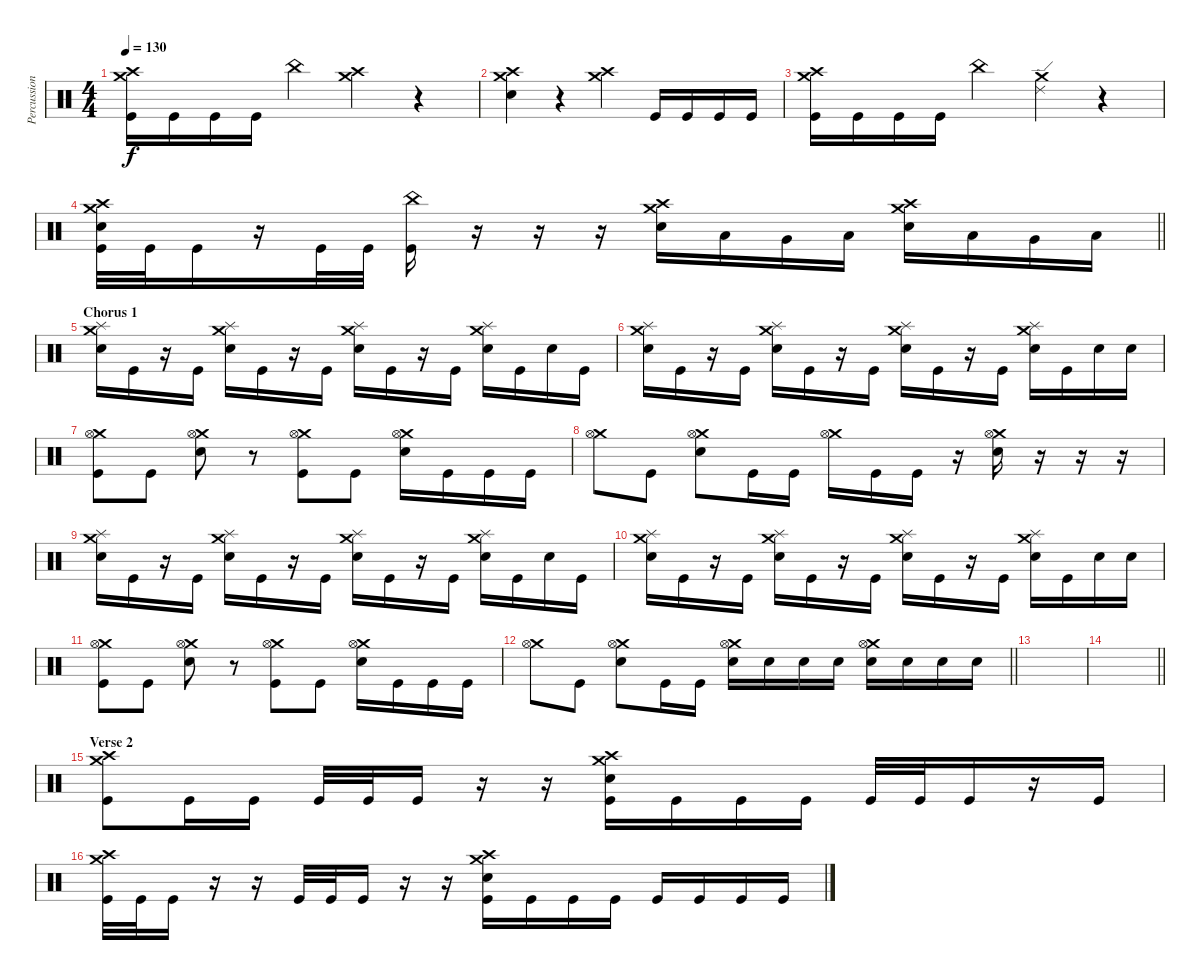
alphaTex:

\track ("Percussion (Approx.)" "Percussion") {instrument percussion}
\staff {score}
\articulation defaults
\ts (4 4)
\tempo 130
\clef neutral
\ks c
("Crash medium (hit)" "Crash high (hit)" "Kick (hit)").16{dy f} "Kick (hit)".16 "Kick (hit)".16 "Kick (hit)".16 "China (hit)".4 ("Crash medium (hit)" "Crash high (hit)").4 r.4 |
("Crash medium (hit)" "Crash high (hit)" "Electric Snare (hit)").4 r.4 ("Crash medium (hit)" "Crash high (hit)").4 "Kick (hit)".16 "Kick (hit)".16 "Kick (hit)".16 "Kick (hit)".16 |
("Crash medium (hit)" "Crash high (hit)" "Kick (hit)").16 "Kick (hit)".16 "Kick (hit)".16 "Kick (hit)".16 "China (hit)".4 ("Crash medium (hit)" "Ride (edge) 2").4 r.4 |
\barLineRight lightlight
("Crash medium (hit)" "Crash high (hit)" "Electric Snare (hit)" "Kick (hit)").32 "Kick (hit)".32 "Kick (hit)".16 r.16 "Kick (hit)".32 "Kick (hit)".32 ("China (hit)" "Kick (hit)").16 r.16 r.16 r.16 ("Crash medium (hit)" "Crash high (hit)" "Electric Snare (hit)").16 "Low Tom (hit)".16 "Very Low Tom (hit)".16 "Low Floor Tom (hit)".16 ("Crash medium (hit)" "Crash high (hit)" "Electric Snare (hit)").16 "Low Tom (hit)".16 "Very Low Tom (hit)".16 "Low Floor Tom (hit)".16 |
\section ("" "Chorus 1")
("Crash medium (hit)" "Splash (hit)" "Electric Snare (hit)").16 "Kick (hit)".16 r.16 "Kick (hit)".16 ("Crash medium (hit)" "Splash (hit)" "Electric Snare (hit)").16 "Kick (hit)".16 r.16 "Kick (hit)".16 ("Crash medium (hit)" "Splash (hit)" "Electric Snare (hit)").16 "Kick (hit)".16 r.16 "Kick (hit)".16 ("Crash medium (hit)" "Splash (hit)" "Electric Snare (hit)").16 "Kick (hit)".16 "Electric Snare (hit)".16 "Kick (hit)".16 |
("Crash medium (hit)" "Splash (hit)" "Electric Snare (hit)").16 "Kick (hit)".16 r.16 "Kick (hit)".16 ("Crash medium (hit)" "Splash (hit)" "Electric Snare (hit)").16 "Kick (hit)".16 r.16 "Kick (hit)".16 ("Crash medium (hit)" "Splash (hit)" "Electric Snare (hit)").16 "Kick (hit)".16 r.16 "Kick (hit)".16 ("Crash medium (hit)" "Splash (hit)" "Electric Snare (hit)").16 "Kick (hit)".16 "Electric Snare (hit)".16 "Electric Snare (hit)".16 |
("Crash medium (hit)" "Hi-Hat (open)" "Kick (hit)").8 "Kick (hit)".8 ("Crash medium (hit)" "Hi-Hat (open)" "Electric Snare (hit)").8 r.8 ("Crash medium (hit)" "Hi-Hat (open)" "Kick (hit)").8 "Kick (hit)".8 ("Crash medium (hit)" "Hi-Hat (open)" "Electric Snare (hit)").16 "Kick (hit)".16 "Kick (hit)".16 "Kick (hit)".16 |
("Crash medium (hit)" "Hi-Hat (open)").8 "Kick (hit)".8 ("Crash medium (hit)" "Hi-Hat (open)" "Electric Snare (hit)").8 "Kick (hit)".16 "Kick (hit)".16 ("Crash medium (hit)" "Hi-Hat (open)").16 "Kick (hit)".16 "Kick (hit)".16 r.16 ("Crash medium (hit)" "Hi-Hat (open)" "Electric Snare (hit)").16 r.16 r.16 r.16 |
("Crash medium (hit)" "Splash (hit)" "Electric Snare (hit)").16 "Kick (hit)".16 r.16 "Kick (hit)".16 ("Crash medium (hit)" "Splash (hit)" "Electric Snare (hit)").16 "Kick (hit)".16 r.16 "Kick (hit)".16 ("Crash medium (hit)" "Splash (hit)" "Electric Snare (hit)").16 "Kick (hit)".16 r.16 "Kick (hit)".16 ("Crash medium (hit)" "Splash (hit)" "Electric Snare (hit)").16 "Kick (hit)".16 "Electric Snare (hit)".16 "Kick (hit)".16 |
("Crash medium (hit)" "Splash (hit)" "Electric Snare (hit)").16 "Kick (hit)".16 r.16 "Kick (hit)".16 ("Crash medium (hit)" "Splash (hit)" "Electric Snare (hit)").16 "Kick (hit)".16 r.16 "Kick (hit)".16 ("Crash medium (hit)" "Splash (hit)" "Electric Snare (hit)").16 "Kick (hit)".16 r.16 "Kick (hit)".16 ("Crash medium (hit)" "Splash (hit)" "Electric Snare (hit)").16 "Kick (hit)".16 "Electric Snare (hit)".16 "Electric Snare (hit)".16 |
("Crash medium (hit)" "Hi-Hat (open)" "Kick (hit)").8 "Kick (hit)".8 ("Crash medium (hit)" "Hi-Hat (open)" "Electric Snare (hit)").8 r.8 ("Crash medium (hit)" "Hi-Hat (open)" "Kick (hit)").8 "Kick (hit)".8 ("Crash medium (hit)" "Hi-Hat (open)" "Electric Snare (hit)").16 "Kick (hit)".16 "Kick (hit)".16 "Kick (hit)".16 |
\barLineRight lightlight
("Crash medium (hit)" "Hi-Hat (open)").8 "Kick (hit)".8 ("Crash medium (hit)" "Hi-Hat (open)" "Electric Snare (hit)").8 "Kick (hit)".16 "Kick (hit)".16 ("Crash medium (hit)" "Hi-Hat (open)" "Electric Snare (hit)").16 "Electric Snare (hit)".16 "Electric Snare (hit)".16 "Electric Snare (hit)".16 ("Crash medium (hit)" "Hi-Hat (open)" "Electric Snare (hit)").16 "Electric Snare (hit)".16 "Electric Snare (hit)".16 "Electric Snare (hit)".16 |
\section ("" "")
|
\barLineRight lightlight
|
\section ("" "Verse 2")
("Crash medium (hit)" "Crash high (hit)" "Kick (hit)").8 "Kick (hit)".16 "Kick (hit)".16 "Kick (hit)".32 "Kick (hit)".32 "Kick (hit)".16 r.16 r.16 ("Crash medium (hit)" "Crash high (hit)" "Electric Snare (hit)" "Kick (hit)").16 "Kick (hit)".16 "Kick (hit)".16 "Kick (hit)".16 "Kick (hit)".32 "Kick (hit)".32 "Kick (hit)".16 r.16 "Kick (hit)".16 |
("Crash medium (hit)" "Crash high (hit)" "Kick (hit)").32 "Kick (hit)".32 "Kick (hit)".16 r.16 r.16 "Kick (hit)".32 "Kick (hit)".32 "Kick (hit)".16 r.16 r.16 ("Crash medium (hit)" "Crash high (hit)" "Electric Snare (hit)" "Kick (hit)").16 "Kick (hit)".16 "Kick (hit)".16 "Kick (hit)".16 "Kick (hit)".16 "Kick (hit)".16 "Kick (hit)".16 "Kick (hit)".16
